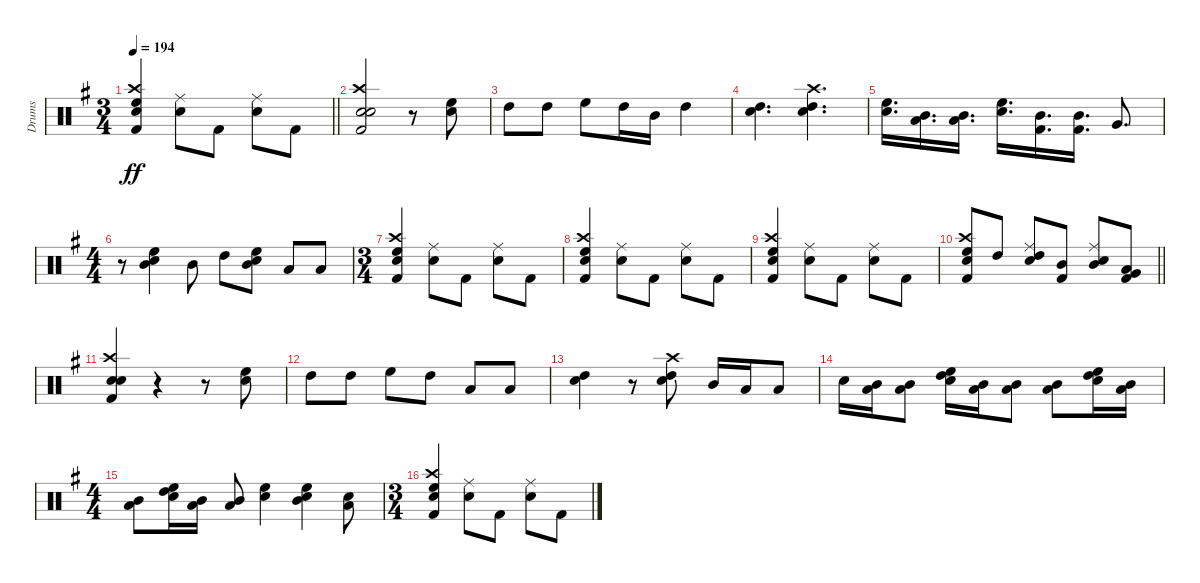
\track ("Drums" "Drums") {instrument percussion}
\staff {score}
\articulation defaults
\ts (3 4)
\tempo 194
\clef neutral
\barLineRight lightlight
\ks g
("Kick (hit) 2" "Crash high (hit)" "High Floor Tom (hit)" "Electric Snare (hit)").4{dy ff} ("Ride (middle)" "Electric Snare (hit)").8 "Kick (hit) 2".8 ("Ride (middle)" "Electric Snare (hit)").8 "Kick (hit) 2".8 |
("Kick (hit) 2" "Snare (hit) 2" "Electric Snare (hit)" "Crash high (hit)").2 r.8 ("High Floor Tom (hit)" "Electric Snare (hit)").8 |
"High Tom (hit)".8 "High Tom (hit)".8 "High Floor Tom (hit)".8 "High Tom (hit)".16 "Mid Tom (hit)".16 "High Tom (hit)".4 |
("Electric Snare (hit)" "High Tom (hit)").4{d} ("Electric Snare (hit)" "High Tom (hit)" "Crash high (hit)").4{d} |
("High Floor Tom (hit)" "Electric Snare (hit)").16{d} ("Mid Tom (hit)" "Low Tom (hit)").16{d} ("Mid Tom (hit)" "Low Tom (hit)").16{d} ("High Floor Tom (hit)" "Electric Snare (hit)").16{d} ("Kick (hit) 2" "Mid Tom (hit)").16{d} ("Kick (hit) 2" "Mid Tom (hit)").16{d} "Very Low Tom (hit)".8{d} |
\ts (4 4)
r.8 ("Mid Tom (hit)" "High Floor Tom (hit)" "Electric Snare (hit)").4 "Mid Tom (hit)".8 "High Tom (hit)".8 ("Mid Tom (hit)" "High Floor Tom (hit)" "Electric Snare (hit)").8 "Low Tom (hit)".8 "Low Tom (hit)".8 |
\ts (3 4)
("Kick (hit) 2" "Crash high (hit)" "High Floor Tom (hit)" "Electric Snare (hit)").4 ("Ride (middle)" "Electric Snare (hit)").8 "Kick (hit) 2".8 ("Ride (middle)" "Electric Snare (hit)").8 "Kick (hit) 2".8 |
("Kick (hit) 2" "Crash high (hit)" "High Floor Tom (hit)" "Electric Snare (hit)").4 ("Ride (middle)" "Electric Snare (hit)").8 "Kick (hit) 2".8 ("Ride (middle)" "Electric Snare (hit)").8 "Kick (hit) 2".8 |
("Kick (hit) 2" "Crash high (hit)" "High Floor Tom (hit)" "Electric Snare (hit)").4 ("Ride (middle)" "Electric Snare (hit)").8 "Kick (hit) 2".8 ("Ride (middle)" "Electric Snare (hit)").8 "Kick (hit) 2".8 |
\barLineRight lightlight
("Kick (hit) 2" "Crash high (hit)" "High Floor Tom (hit)" "Electric Snare (hit)").8 "High Tom (hit)".8 ("High Tom (hit)" "Ride (middle)" "Electric Snare (hit)").8 ("Mid Tom (hit)" "Kick (hit) 2").8 ("Mid Tom (hit)" "Ride (middle)" "Electric Snare (hit)").8 ("Very Low Tom (hit)" "Low Tom (hit)" "Kick (hit) 2").8 |
("Kick (hit) 2" "Snare (hit) 2" "Electric Snare (hit)" "Crash high (hit)").4 r.4 r.8 ("High Floor Tom (hit)" "Electric Snare (hit)").8 |
"High Tom (hit)".8 "High Tom (hit)".8 "High Floor Tom (hit)".8 "High Tom (hit)".8 "Low Tom (hit)".8 "Low Tom (hit)".8 |
("Electric Snare (hit)" "High Tom (hit)").4 r.8 ("Electric Snare (hit)" "High Tom (hit)" "Crash high (hit)").8 "Mid Tom (hit)".16 "Low Tom (hit)".16 "Low Tom (hit)".8 |
"Electric Snare (hit)".16 ("Mid Tom (hit)" "Low Tom (hit)").16 ("Mid Tom (hit)" "Low Tom (hit)").8 ("High Floor Tom (hit)" "High Tom (hit)" "Electric Snare (hit)").16 ("Mid Tom (hit)" "Low Tom (hit)").16 ("Mid Tom (hit)" "Low Tom (hit)").8 ("Mid Tom (hit)" "Low Tom (hit)").8 ("High Floor Tom (hit)" "High Tom (hit)" "Electric Snare (hit)").16 ("Mid Tom (hit)" "Low Tom (hit)").16 |
\ts (4 4)
("Mid Tom (hit)" "Low Tom (hit)").8 ("High Floor Tom (hit)" "High Tom (hit)" "Electric Snare (hit)").16 ("Mid Tom (hit)" "Low Tom (hit)").16 ("Mid Tom (hit)" "Low Tom (hit)").8 ("Electric Snare (hit)" "High Floor Tom (hit)").4 ("Mid Tom (hit)" "High Floor Tom (hit)" "Electric Snare (hit)").4 ("Electric Snare (hit)" "Low Tom (hit)").8 |
\ts (3 4)
("Kick (hit) 2" "Crash high (hit)" "High Floor Tom (hit)" "Electric Snare (hit)").4 ("Ride (middle)" "Electric Snare (hit)").8 "Kick (hit) 2".8 ("Ride (middle)" "Electric Snare (hit)").8 "Kick (hit) 2".8
